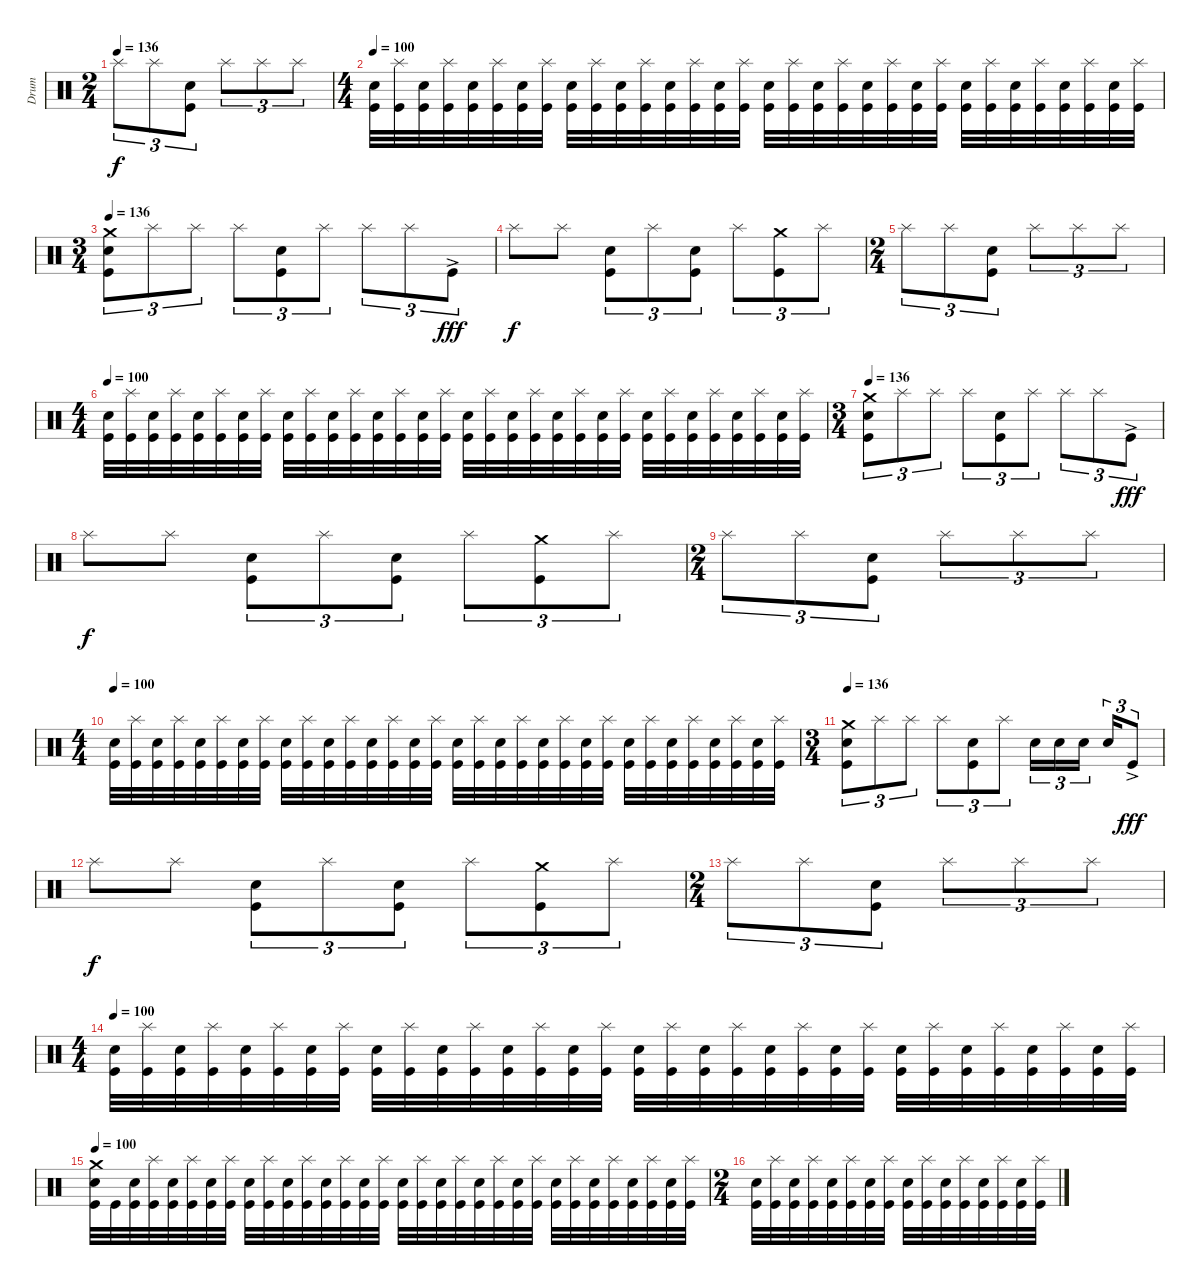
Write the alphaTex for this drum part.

\track ("Drum" "Drum") {instrument percussion}
\staff
\articulation defaults
\ts (2 4)
\tempo 136
\clef neutral
\ks c "Splash (hit)".8{tu (3 2) dy f} "Splash (hit)".8{tu (3 2)}
("Electric Snare (hit)" "Kick (hit)").8{tu (3 2)} "Splash (hit)".8{tu (3 2)} "Splash (hit)".8{tu (3 2)} "Splash (hit)".8{tu (3 2)} |
\ts (4 4)
\tempo 100
("Electric Snare (hit)" "Kick (hit)").32 ("Splash (hit)" "Kick (hit)").32 ("Electric Snare (hit)" "Kick (hit)").32 ("Splash (hit)" "Kick (hit)").32 ("Electric Snare (hit)" "Kick (hit)").32 ("Splash (hit)" "Kick (hit)").32 ("Electric Snare (hit)" "Kick (hit)").32 ("Splash (hit)" "Kick (hit)").32 ("Electric Snare (hit)" "Kick (hit)").32 ("Splash (hit)" "Kick (hit)").32 ("Electric Snare (hit)" "Kick (hit)").32 ("Splash (hit)" "Kick (hit)").32 ("Electric Snare (hit)" "Kick (hit)").32 ("Splash (hit)" "Kick (hit)").32 ("Electric Snare (hit)" "Kick (hit)").32 ("Splash (hit)" "Kick (hit)").32 ("Electric Snare (hit)" "Kick (hit)").32 ("Splash (hit)" "Kick (hit)").32 ("Electric Snare (hit)" "Kick (hit)").32 ("Splash (hit)" "Kick (hit)").32 ("Electric Snare (hit)" "Kick (hit)").32 ("Splash (hit)" "Kick (hit)").32 ("Electric Snare (hit)" "Kick (hit)").32 ("Splash (hit)" "Kick (hit)").32 ("Electric Snare (hit)" "Kick (hit)").32 ("Splash (hit)" "Kick (hit)").32 ("Electric Snare (hit)" "Kick (hit)").32 ("Splash (hit)" "Kick (hit)").32 ("Electric Snare (hit)" "Kick (hit)").32 ("Splash (hit)" "Kick (hit)").32 ("Electric Snare (hit)" "Kick (hit)").32 ("Splash (hit)" "Kick (hit)").32 |
\ts (3 4)
\tempo 136
("Crash medium (hit)" "Electric Snare (hit)" "Kick (hit)").8{tu (3 2)} "Splash (hit)".8{tu (3 2)} "Splash (hit)".8{tu (3 2)} "Splash (hit)".8{tu (3 2)} ("Electric Snare (hit)" "Kick (hit)").8{tu (3 2)} "Splash (hit)".8{tu (3 2)} "Splash (hit)".8{tu (3 2)} "Splash (hit)".8{tu (3 2)} "Kick (hit)"{ac}.8{tu (3 2) dy fff} |
"Splash (hit)".8{dy f} "Splash (hit)".8 ("Electric Snare (hit)" "Kick (hit)").8{tu (3 2)} "Splash (hit)".8{tu (3 2)} ("Electric Snare (hit)" "Kick (hit)").8{tu (3 2)} "Splash (hit)".8{tu (3 2)} ("Crash medium (hit)" "Kick (hit)").8{tu (3 2)} "Splash (hit)".8{tu (3 2)} |
\ts (2 4)
"Splash (hit)".8{tu (3 2)} "Splash (hit)".8{tu (3 2)} ("Electric Snare (hit)" "Kick (hit)").8{tu (3 2)} "Splash (hit)".8{tu (3 2)} "Splash (hit)".8{tu (3 2)} "Splash (hit)".8{tu (3 2)} |
\ts (4 4)
\tempo 100
("Electric Snare (hit)" "Kick (hit)").32 ("Splash (hit)" "Kick (hit)").32 ("Electric Snare (hit)" "Kick (hit)").32 ("Splash (hit)" "Kick (hit)").32 ("Electric Snare (hit)" "Kick (hit)").32 ("Splash (hit)" "Kick (hit)").32 ("Electric Snare (hit)" "Kick (hit)").32 ("Splash (hit)" "Kick (hit)").32 ("Electric Snare (hit)" "Kick (hit)").32 ("Splash (hit)" "Kick (hit)").32 ("Electric Snare (hit)" "Kick (hit)").32 ("Splash (hit)" "Kick (hit)").32 ("Electric Snare (hit)" "Kick (hit)").32 ("Splash (hit)" "Kick (hit)").32 ("Electric Snare (hit)" "Kick (hit)").32 ("Splash (hit)" "Kick (hit)").32 ("Electric Snare (hit)" "Kick (hit)").32 ("Splash (hit)" "Kick (hit)").32 ("Electric Snare (hit)" "Kick (hit)").32 ("Splash (hit)" "Kick (hit)").32 ("Electric Snare (hit)" "Kick (hit)").32 ("Splash (hit)" "Kick (hit)").32 ("Electric Snare (hit)" "Kick (hit)").32 ("Splash (hit)" "Kick (hit)").32 ("Electric Snare (hit)" "Kick (hit)").32 ("Splash (hit)" "Kick (hit)").32 ("Electric Snare (hit)" "Kick (hit)").32 ("Splash (hit)" "Kick (hit)").32 ("Electric Snare (hit)" "Kick (hit)").32 ("Splash (hit)" "Kick (hit)").32 ("Electric Snare (hit)" "Kick (hit)").32 ("Splash (hit)" "Kick (hit)").32 |
\ts (3 4)
\tempo 136
("Crash medium (hit)" "Electric Snare (hit)" "Kick (hit)").8{tu (3 2)} "Splash (hit)".8{tu (3 2)} "Splash (hit)".8{tu (3 2)} "Splash (hit)".8{tu (3 2)} ("Electric Snare (hit)" "Kick (hit)").8{tu (3 2)} "Splash (hit)".8{tu (3 2)} "Splash (hit)".8{tu (3 2)} "Splash (hit)".8{tu (3 2)} "Kick (hit)"{ac}.8{tu (3 2) dy fff} |
"Splash (hit)".8{dy f} "Splash (hit)".8 ("Electric Snare (hit)" "Kick (hit)").8{tu (3 2)} "Splash (hit)".8{tu (3 2)} ("Electric Snare (hit)" "Kick (hit)").8{tu (3 2)} "Splash (hit)".8{tu (3 2)} ("Crash medium (hit)" "Kick (hit)").8{tu (3 2)} "Splash (hit)".8{tu (3 2)} |
\ts (2 4)
"Splash (hit)".8{tu (3 2)} "Splash (hit)".8{tu (3 2)} ("Electric Snare (hit)" "Kick (hit)").8{tu (3 2)} "Splash (hit)".8{tu (3 2)} "Splash (hit)".8{tu (3 2)} "Splash (hit)".8{tu (3 2)} |
\ts (4 4)
\tempo 100
("Electric Snare (hit)" "Kick (hit)").32 ("Splash (hit)" "Kick (hit)").32 ("Electric Snare (hit)" "Kick (hit)").32 ("Splash (hit)" "Kick (hit)").32 ("Electric Snare (hit)" "Kick (hit)").32 ("Splash (hit)" "Kick (hit)").32 ("Electric Snare (hit)" "Kick (hit)").32 ("Splash (hit)" "Kick (hit)").32 ("Electric Snare (hit)" "Kick (hit)").32 ("Splash (hit)" "Kick (hit)").32 ("Electric Snare (hit)" "Kick (hit)").32 ("Splash (hit)" "Kick (hit)").32 ("Electric Snare (hit)" "Kick (hit)").32 ("Splash (hit)" "Kick (hit)").32 ("Electric Snare (hit)" "Kick (hit)").32 ("Splash (hit)" "Kick (hit)").32 ("Electric Snare (hit)" "Kick (hit)").32 ("Splash (hit)" "Kick (hit)").32 ("Electric Snare (hit)" "Kick (hit)").32 ("Splash (hit)" "Kick (hit)").32 ("Electric Snare (hit)" "Kick (hit)").32 ("Splash (hit)" "Kick (hit)").32 ("Electric Snare (hit)" "Kick (hit)").32 ("Splash (hit)" "Kick (hit)").32 ("Electric Snare (hit)" "Kick (hit)").32 ("Splash (hit)" "Kick (hit)").32 ("Electric Snare (hit)" "Kick (hit)").32 ("Splash (hit)" "Kick (hit)").32 ("Electric Snare (hit)" "Kick (hit)").32 ("Splash (hit)" "Kick (hit)").32 ("Electric Snare (hit)" "Kick (hit)").32 ("Splash (hit)" "Kick (hit)").32 |
\ts (3 4)
\tempo 136
("Crash medium (hit)" "Electric Snare (hit)" "Kick (hit)").8{tu (3 2)} "Splash (hit)".8{tu (3 2)} "Splash (hit)".8{tu (3 2)} "Splash (hit)".8{tu (3 2)} ("Electric Snare (hit)" "Kick (hit)").8{tu (3 2)} "Splash (hit)".8{tu (3 2)} "Electric Snare (hit)".16{tu (3 2)} "Electric Snare (hit)".16{tu (3 2)} "Electric Snare (hit)".16{tu (3 2) beam splitsecondary} "Electric Snare (hit)".16{tu (3 2)} "Kick (hit)"{ac}.8{tu (3 2) dy fff} |
"Splash (hit)".8{dy f} "Splash (hit)".8 ("Electric Snare (hit)" "Kick (hit)").8{tu (3 2)} "Splash (hit)".8{tu (3 2)} ("Electric Snare (hit)" "Kick (hit)").8{tu (3 2)} "Splash (hit)".8{tu (3 2)} ("Crash medium (hit)" "Kick (hit)").8{tu (3 2)} "Splash (hit)".8{tu (3 2)} |
\ts (2 4)
"Splash (hit)".8{tu (3 2)} "Splash (hit)".8{tu (3 2)} ("Electric Snare (hit)" "Kick (hit)").8{tu (3 2)} "Splash (hit)".8{tu (3 2)} "Splash (hit)".8{tu (3 2)} "Splash (hit)".8{tu (3 2)} |
\ts (4 4)
\tempo 100
("Electric Snare (hit)" "Kick (hit)").32 ("Splash (hit)" "Kick (hit)").32 ("Electric Snare (hit)" "Kick (hit)").32 ("Splash (hit)" "Kick (hit)").32 ("Electric Snare (hit)" "Kick (hit)").32 ("Splash (hit)" "Kick (hit)").32 ("Electric Snare (hit)" "Kick (hit)").32 ("Splash (hit)" "Kick (hit)").32 ("Electric Snare (hit)" "Kick (hit)").32 ("Splash (hit)" "Kick (hit)").32 ("Electric Snare (hit)" "Kick (hit)").32 ("Splash (hit)" "Kick (hit)").32 ("Electric Snare (hit)" "Kick (hit)").32 ("Splash (hit)" "Kick (hit)").32 ("Electric Snare (hit)" "Kick (hit)").32 ("Splash (hit)" "Kick (hit)").32 ("Electric Snare (hit)" "Kick (hit)").32 ("Splash (hit)" "Kick (hit)").32 ("Electric Snare (hit)" "Kick (hit)").32 ("Splash (hit)" "Kick (hit)").32 ("Electric Snare (hit)" "Kick (hit)").32 ("Splash (hit)" "Kick (hit)").32 ("Electric Snare (hit)" "Kick (hit)").32 ("Splash (hit)" "Kick (hit)").32 ("Electric Snare (hit)" "Kick (hit)").32 ("Splash (hit)" "Kick (hit)").32 ("Electric Snare (hit)" "Kick (hit)").32 ("Splash (hit)" "Kick (hit)").32 ("Electric Snare (hit)" "Kick (hit)").32 ("Splash (hit)" "Kick (hit)").32 ("Electric Snare (hit)" "Kick (hit)").32 ("Splash (hit)" "Kick (hit)").32 |
\tempo 100
("Crash medium (hit)" "Electric Snare (hit)" "Kick (hit)").32 "Kick (hit)".32 ("Electric Snare (hit)" "Kick (hit)").32 ("Splash (hit)" "Kick (hit)").32 ("Electric Snare (hit)" "Kick (hit)").32 ("Splash (hit)" "Kick (hit)").32 ("Electric Snare (hit)" "Kick (hit)").32 ("Splash (hit)" "Kick (hit)").32 ("Electric Snare (hit)" "Kick (hit)").32 ("Splash (hit)" "Kick (hit)").32 ("Electric Snare (hit)" "Kick (hit)").32 ("Splash (hit)" "Kick (hit)").32 ("Electric Snare (hit)" "Kick (hit)").32 ("Splash (hit)" "Kick (hit)").32 ("Electric Snare (hit)" "Kick (hit)").32 ("Splash (hit)" "Kick (hit)").32 ("Electric Snare (hit)" "Kick (hit)").32 ("Splash (hit)" "Kick (hit)").32 ("Electric Snare (hit)" "Kick (hit)").32 ("Splash (hit)" "Kick (hit)").32 ("Electric Snare (hit)" "Kick (hit)").32 ("Splash (hit)" "Kick (hit)").32 ("Electric Snare (hit)" "Kick (hit)").32 ("Splash (hit)" "Kick (hit)").32 ("Electric Snare (hit)" "Kick (hit)").32 ("Splash (hit)" "Kick (hit)").32 ("Electric Snare (hit)" "Kick (hit)").32 ("Splash (hit)" "Kick (hit)").32 ("Electric Snare (hit)" "Kick (hit)").32 ("Splash (hit)" "Kick (hit)").32 ("Electric Snare (hit)" "Kick (hit)").32 ("Splash (hit)" "Kick (hit)").32 |
\ts (2 4)
("Electric Snare (hit)" "Kick (hit)").32 ("Splash (hit)" "Kick (hit)").32 ("Electric Snare (hit)" "Kick (hit)").32 ("Splash (hit)" "Kick (hit)").32 ("Electric Snare (hit)" "Kick (hit)").32 ("Splash (hit)" "Kick (hit)").32 ("Electric Snare (hit)" "Kick (hit)").32 ("Splash (hit)" "Kick (hit)").32 ("Electric Snare (hit)" "Kick (hit)").32 ("Splash (hit)" "Kick (hit)").32 ("Electric Snare (hit)" "Kick (hit)").32 ("Splash (hit)" "Kick (hit)").32 ("Electric Snare (hit)" "Kick (hit)").32 ("Splash (hit)" "Kick (hit)").32 ("Electric Snare (hit)" "Kick (hit)").32 ("Splash (hit)" "Kick (hit)").32
